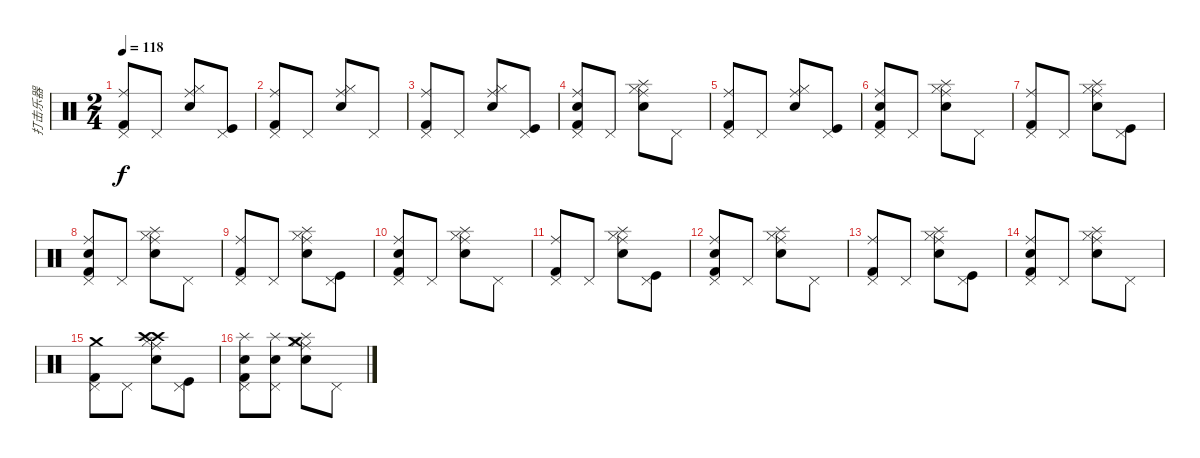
\track ("打击乐器" "打击乐器") {instrument percussion}
\staff {score}
\articulation defaults
\ts (2 4)
\tempo 118
\clef neutral
\ks c
("Pedal Hi-Hat (hit)" "Ride (middle)" "Kick (hit) 2").8{dy f} "Pedal Hi-Hat (hit)".8 ("Ride (middle)" "Hi-Hat (closed)" "Snare (hit) 2").8 ("Pedal Hi-Hat (hit)" "Kick (hit)").8 |
("Pedal Hi-Hat (hit)" "Ride (middle)" "Kick (hit) 2").8 "Pedal Hi-Hat (hit)".8 ("Ride (middle)" "Hi-Hat (closed)" "Snare (hit) 2").8 "Pedal Hi-Hat (hit)".8 |
("Pedal Hi-Hat (hit)" "Ride (middle)" "Kick (hit) 2").8 "Pedal Hi-Hat (hit)".8 ("Ride (middle)" "Hi-Hat (closed)" "Snare (hit) 2").8 ("Pedal Hi-Hat (hit)" "Kick (hit)").8 |
("Snare (hit) 2" "Pedal Hi-Hat (hit)" "Ride (middle)" "Kick (hit) 2").8 "Pedal Hi-Hat (hit)".8 ("Ride (middle)" "Hi-Hat (closed)" "Splash (hit)" "Snare (hit) 2").8 "Pedal Hi-Hat (hit)".8 |
("Pedal Hi-Hat (hit)" "Ride (middle)" "Kick (hit) 2").8 "Pedal Hi-Hat (hit)".8 ("Ride (middle)" "Hi-Hat (closed)" "Snare (hit) 2").8 ("Pedal Hi-Hat (hit)" "Kick (hit)").8 |
("Snare (hit) 2" "Pedal Hi-Hat (hit)" "Ride (middle)" "Kick (hit) 2").8 "Pedal Hi-Hat (hit)".8 ("Ride (middle)" "Hi-Hat (closed)" "Splash (hit)" "Snare (hit) 2").8 "Pedal Hi-Hat (hit)".8 |
("Pedal Hi-Hat (hit)" "Ride (middle)" "Kick (hit) 2").8 "Pedal Hi-Hat (hit)".8 ("Ride (middle)" "Hi-Hat (closed)" "Splash (hit)" "Snare (hit) 2").8 ("Pedal Hi-Hat (hit)" "Kick (hit)").8 |
("Snare (hit) 2" "Pedal Hi-Hat (hit)" "Ride (middle)" "Kick (hit) 2").8 "Pedal Hi-Hat (hit)".8 ("Ride (middle)" "Hi-Hat (closed)" "Splash (hit)" "Snare (hit) 2").8 "Pedal Hi-Hat (hit)".8 |
("Pedal Hi-Hat (hit)" "Ride (middle)" "Kick (hit) 2").8 "Pedal Hi-Hat (hit)".8 ("Ride (middle)" "Hi-Hat (closed)" "Splash (hit)" "Snare (hit) 2").8 ("Pedal Hi-Hat (hit)" "Kick (hit)").8 |
("Snare (hit) 2" "Pedal Hi-Hat (hit)" "Ride (middle)" "Kick (hit) 2").8 "Pedal Hi-Hat (hit)".8 ("Ride (middle)" "Hi-Hat (closed)" "Splash (hit)" "Snare (hit) 2").8 "Pedal Hi-Hat (hit)".8 |
("Pedal Hi-Hat (hit)" "Ride (middle)" "Kick (hit) 2").8 "Pedal Hi-Hat (hit)".8 ("Ride (middle)" "Hi-Hat (closed)" "Splash (hit)" "Snare (hit) 2").8 ("Pedal Hi-Hat (hit)" "Kick (hit)").8 |
("Snare (hit) 2" "Pedal Hi-Hat (hit)" "Ride (middle)" "Kick (hit) 2").8 "Pedal Hi-Hat (hit)".8 ("Ride (middle)" "Hi-Hat (closed)" "Splash (hit)" "Snare (hit) 2").8 "Pedal Hi-Hat (hit)".8 |
("Pedal Hi-Hat (hit)" "Ride (middle)" "Kick (hit) 2").8 "Pedal Hi-Hat (hit)".8 ("Ride (middle)" "Hi-Hat (closed)" "Splash (hit)" "Snare (hit) 2").8 ("Pedal Hi-Hat (hit)" "Kick (hit)").8 |
("Snare (hit) 2" "Pedal Hi-Hat (hit)" "Ride (middle)" "Kick (hit) 2").8 "Pedal Hi-Hat (hit)".8 ("Ride (middle)" "Hi-Hat (closed)" "Splash (hit)" "Snare (hit) 2").8 "Pedal Hi-Hat (hit)".8 |
("Pedal Hi-Hat (hit)" "Crash medium (hit)" "Kick (hit) 2").8 "Pedal Hi-Hat (hit)".8 ("Crash high (hit)" "Ride (middle)" "Hi-Hat (closed)" "Crash high (hit)" "Snare (hit) 2").8 ("Pedal Hi-Hat (hit)" "Kick (hit)").8 |
("Snare (hit) 2" "Pedal Hi-Hat (hit)" "Splash (hit)" "Kick (hit) 2").8 ("Snare (hit) 2" "Pedal Hi-Hat (hit)" "Splash (hit)").8 ("Splash (hit)" "Ride (middle)" "Hi-Hat (closed)" "Crash medium (hit)" "Snare (hit) 2").8 "Pedal Hi-Hat (hit)".8
